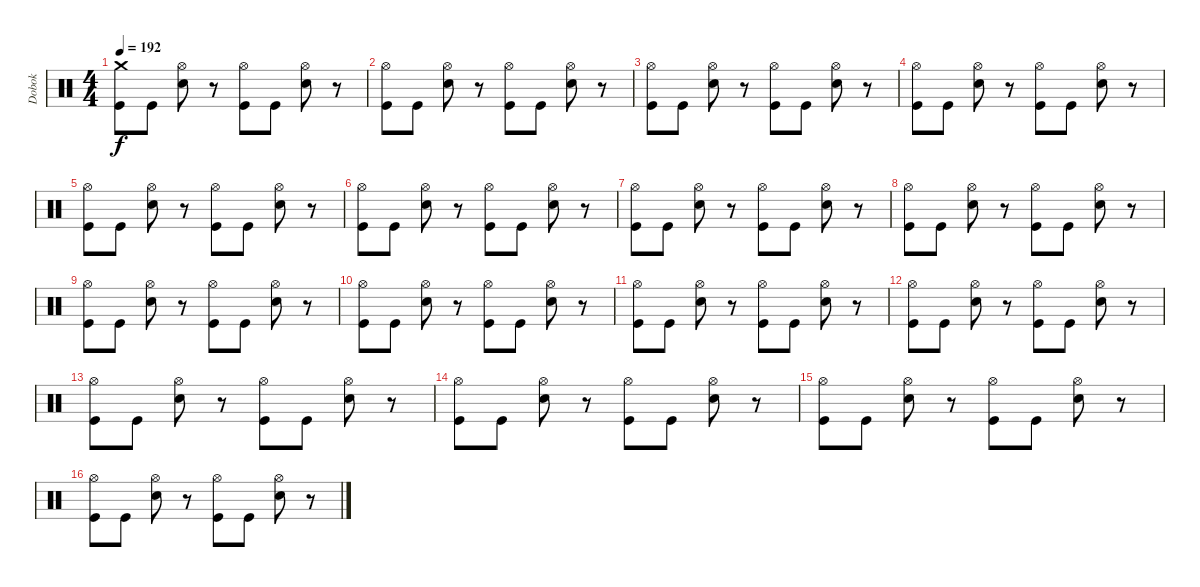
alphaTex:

\track ("Dobok" "Dobok") {instrument percussion}
\staff {score}
\articulation defaults
\ts (4 4)
\tempo 192
\clef neutral
\ks c
("Crash medium (hit)" "Kick (hit)").8{dy f} "Kick (hit)".8 ("Hi-Hat (open)" "Electric Snare (hit)").8 r.8 ("Hi-Hat (open)" "Kick (hit)").8 "Kick (hit)".8 ("Hi-Hat (open)" "Electric Snare (hit)").8 r.8 |
("Hi-Hat (open)" "Kick (hit)").8 "Kick (hit)".8 ("Hi-Hat (open)" "Electric Snare (hit)").8 r.8 ("Hi-Hat (open)" "Kick (hit)").8 "Kick (hit)".8 ("Hi-Hat (open)" "Electric Snare (hit)").8 r.8 |
("Hi-Hat (open)" "Kick (hit)").8 "Kick (hit)".8 ("Hi-Hat (open)" "Electric Snare (hit)").8 r.8 ("Hi-Hat (open)" "Kick (hit)").8 "Kick (hit)".8 ("Hi-Hat (open)" "Electric Snare (hit)").8 r.8 |
("Hi-Hat (open)" "Kick (hit)").8 "Kick (hit)".8 ("Hi-Hat (open)" "Electric Snare (hit)").8 r.8 ("Hi-Hat (open)" "Kick (hit)").8 "Kick (hit)".8 ("Hi-Hat (open)" "Electric Snare (hit)").8 r.8 |
("Hi-Hat (open)" "Kick (hit)").8 "Kick (hit)".8 ("Hi-Hat (open)" "Electric Snare (hit)").8 r.8 ("Hi-Hat (open)" "Kick (hit)").8 "Kick (hit)".8 ("Hi-Hat (open)" "Electric Snare (hit)").8 r.8 |
("Hi-Hat (open)" "Kick (hit)").8 "Kick (hit)".8 ("Hi-Hat (open)" "Electric Snare (hit)").8 r.8 ("Hi-Hat (open)" "Kick (hit)").8 "Kick (hit)".8 ("Hi-Hat (open)" "Electric Snare (hit)").8 r.8 |
("Hi-Hat (open)" "Kick (hit)").8 "Kick (hit)".8 ("Hi-Hat (open)" "Electric Snare (hit)").8 r.8 ("Hi-Hat (open)" "Kick (hit)").8 "Kick (hit)".8 ("Hi-Hat (open)" "Electric Snare (hit)").8 r.8 |
("Hi-Hat (open)" "Kick (hit)").8 "Kick (hit)".8 ("Hi-Hat (open)" "Electric Snare (hit)").8 r.8 ("Hi-Hat (open)" "Kick (hit)").8 "Kick (hit)".8 ("Hi-Hat (open)" "Electric Snare (hit)").8 r.8 |
("Hi-Hat (open)" "Kick (hit)").8 "Kick (hit)".8 ("Hi-Hat (open)" "Electric Snare (hit)").8 r.8 ("Hi-Hat (open)" "Kick (hit)").8 "Kick (hit)".8 ("Hi-Hat (open)" "Electric Snare (hit)").8 r.8 |
("Hi-Hat (open)" "Kick (hit)").8 "Kick (hit)".8 ("Hi-Hat (open)" "Electric Snare (hit)").8 r.8 ("Hi-Hat (open)" "Kick (hit)").8 "Kick (hit)".8 ("Hi-Hat (open)" "Electric Snare (hit)").8 r.8 |
("Hi-Hat (open)" "Kick (hit)").8 "Kick (hit)".8 ("Hi-Hat (open)" "Electric Snare (hit)").8 r.8 ("Hi-Hat (open)" "Kick (hit)").8 "Kick (hit)".8 ("Hi-Hat (open)" "Electric Snare (hit)").8 r.8 |
("Hi-Hat (open)" "Kick (hit)").8 "Kick (hit)".8 ("Hi-Hat (open)" "Electric Snare (hit)").8 r.8 ("Hi-Hat (open)" "Kick (hit)").8 "Kick (hit)".8 ("Hi-Hat (open)" "Electric Snare (hit)").8 r.8 |
("Hi-Hat (open)" "Kick (hit)").8 "Kick (hit)".8 ("Hi-Hat (open)" "Electric Snare (hit)").8 r.8 ("Hi-Hat (open)" "Kick (hit)").8 "Kick (hit)".8 ("Hi-Hat (open)" "Electric Snare (hit)").8 r.8 |
("Hi-Hat (open)" "Kick (hit)").8 "Kick (hit)".8 ("Hi-Hat (open)" "Electric Snare (hit)").8 r.8 ("Hi-Hat (open)" "Kick (hit)").8 "Kick (hit)".8 ("Hi-Hat (open)" "Electric Snare (hit)").8 r.8 |
("Hi-Hat (open)" "Kick (hit)").8 "Kick (hit)".8 ("Hi-Hat (open)" "Electric Snare (hit)").8 r.8 ("Hi-Hat (open)" "Kick (hit)").8 "Kick (hit)".8 ("Hi-Hat (open)" "Electric Snare (hit)").8 r.8 |
("Hi-Hat (open)" "Kick (hit)").8 "Kick (hit)".8 ("Hi-Hat (open)" "Electric Snare (hit)").8 r.8 ("Hi-Hat (open)" "Kick (hit)").8 "Kick (hit)".8 ("Hi-Hat (open)" "Electric Snare (hit)").8 r.8
